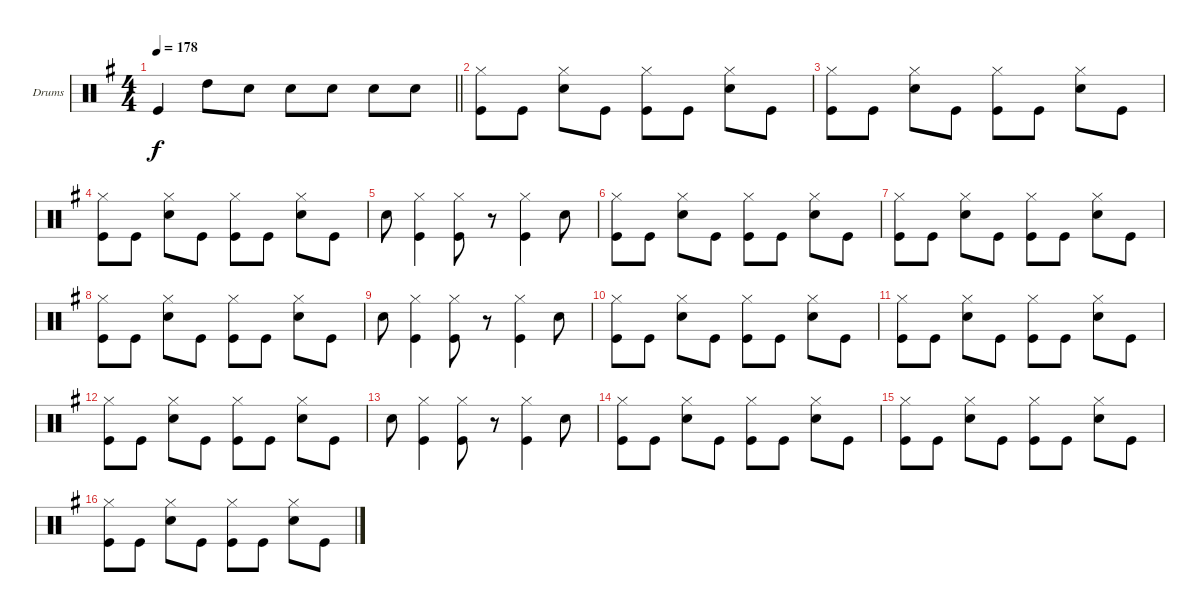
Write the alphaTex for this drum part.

\bracketExtendMode groupsimilarinstruments
\firstSystemTrackNameOrientation horizontal
\otherSystemsTrackNameOrientation horizontal
\track ("Drumkit" "Drums") {instrument percussion}
\staff {score}
\articulation defaults
\ts (4 4)
\tempo 178
\clef neutral
\barLineRight lightlight
\ks eminor "Kick (hit)".4{dy f} "High Tom (hit)".8 "Snare (hit) 2".8 "Snare (hit) 2".8 "Snare (hit) 2".8 "Snare (hit) 2".8 "Snare (hit) 2".8
|
("Hi-Hat (closed)" "Kick (hit)").8 "Kick (hit)".8 ("Hi-Hat (closed)" "Snare (hit) 2").8 "Kick (hit)".8 ("Hi-Hat (closed)" "Kick (hit)").8 "Kick (hit)".8 ("Hi-Hat (closed)" "Snare (hit) 2").8 "Kick (hit)".8 |
("Hi-Hat (closed)" "Kick (hit)").8 "Kick (hit)".8 ("Hi-Hat (closed)" "Snare (hit) 2").8 "Kick (hit)".8 ("Hi-Hat (closed)" "Kick (hit)").8 "Kick (hit)".8 ("Hi-Hat (closed)" "Snare (hit) 2").8 "Kick (hit)".8 |
("Hi-Hat (closed)" "Kick (hit)").8 "Kick (hit)".8 ("Hi-Hat (closed)" "Snare (hit) 2").8 "Kick (hit)".8 ("Hi-Hat (closed)" "Kick (hit)").8 "Kick (hit)".8 ("Hi-Hat (closed)" "Snare (hit) 2").8 "Kick (hit)".8 |
"Snare (hit) 2".8 ("Hi-Hat (closed)" "Kick (hit)").4 ("Hi-Hat (closed)" "Kick (hit)").8 r.8 ("Hi-Hat (closed)" "Kick (hit)").4 "Snare (hit) 2".8 |
("Hi-Hat (closed)" "Kick (hit)").8 "Kick (hit)".8 ("Hi-Hat (closed)" "Snare (hit) 2").8 "Kick (hit)".8 ("Hi-Hat (closed)" "Kick (hit)").8 "Kick (hit)".8 ("Hi-Hat (closed)" "Snare (hit) 2").8 "Kick (hit)".8 |
("Hi-Hat (closed)" "Kick (hit)").8 "Kick (hit)".8 ("Hi-Hat (closed)" "Snare (hit) 2").8 "Kick (hit)".8 ("Hi-Hat (closed)" "Kick (hit)").8 "Kick (hit)".8 ("Hi-Hat (closed)" "Snare (hit) 2").8 "Kick (hit)".8 |
("Hi-Hat (closed)" "Kick (hit)").8 "Kick (hit)".8 ("Hi-Hat (closed)" "Snare (hit) 2").8 "Kick (hit)".8 ("Hi-Hat (closed)" "Kick (hit)").8 "Kick (hit)".8 ("Hi-Hat (closed)" "Snare (hit) 2").8 "Kick (hit)".8 |
"Snare (hit) 2".8 ("Hi-Hat (closed)" "Kick (hit)").4 ("Hi-Hat (closed)" "Kick (hit)").8 r.8 ("Hi-Hat (closed)" "Kick (hit)").4 "Snare (hit) 2".8 |
("Hi-Hat (closed)" "Kick (hit)").8 "Kick (hit)".8 ("Hi-Hat (closed)" "Snare (hit) 2").8 "Kick (hit)".8 ("Hi-Hat (closed)" "Kick (hit)").8 "Kick (hit)".8 ("Hi-Hat (closed)" "Snare (hit) 2").8 "Kick (hit)".8 |
("Hi-Hat (closed)" "Kick (hit)").8 "Kick (hit)".8 ("Hi-Hat (closed)" "Snare (hit) 2").8 "Kick (hit)".8 ("Hi-Hat (closed)" "Kick (hit)").8 "Kick (hit)".8 ("Hi-Hat (closed)" "Snare (hit) 2").8 "Kick (hit)".8 |
("Hi-Hat (closed)" "Kick (hit)").8 "Kick (hit)".8 ("Hi-Hat (closed)" "Snare (hit) 2").8 "Kick (hit)".8 ("Hi-Hat (closed)" "Kick (hit)").8 "Kick (hit)".8 ("Hi-Hat (closed)" "Snare (hit) 2").8 "Kick (hit)".8 |
"Snare (hit) 2".8 ("Hi-Hat (closed)" "Kick (hit)").4 ("Hi-Hat (closed)" "Kick (hit)").8 r.8 ("Hi-Hat (closed)" "Kick (hit)").4 "Snare (hit) 2".8 |
("Hi-Hat (closed)" "Kick (hit)").8 "Kick (hit)".8 ("Hi-Hat (closed)" "Snare (hit) 2").8 "Kick (hit)".8 ("Hi-Hat (closed)" "Kick (hit)").8 "Kick (hit)".8 ("Hi-Hat (closed)" "Snare (hit) 2").8 "Kick (hit)".8 |
("Hi-Hat (closed)" "Kick (hit)").8 "Kick (hit)".8 ("Hi-Hat (closed)" "Snare (hit) 2").8 "Kick (hit)".8 ("Hi-Hat (closed)" "Kick (hit)").8 "Kick (hit)".8 ("Hi-Hat (closed)" "Snare (hit) 2").8 "Kick (hit)".8 |
("Hi-Hat (closed)" "Kick (hit)").8 "Kick (hit)".8 ("Hi-Hat (closed)" "Snare (hit) 2").8 "Kick (hit)".8 ("Hi-Hat (closed)" "Kick (hit)").8 "Kick (hit)".8 ("Hi-Hat (closed)" "Snare (hit) 2").8 "Kick (hit)".8
